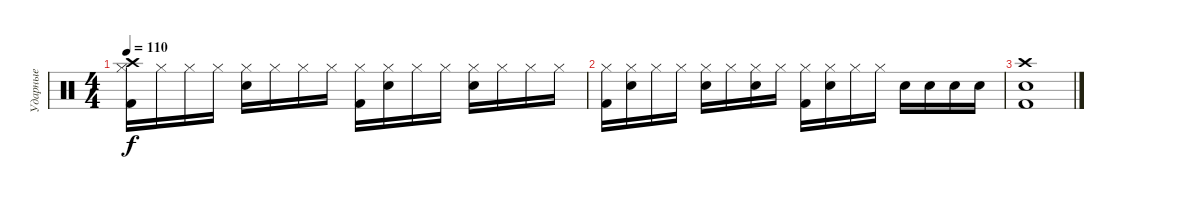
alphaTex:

\track ("Ударные" "Ударные") {instrument percussion}
\staff {score}
\articulation defaults
\ts (4 4)
\tempo 110
\clef neutral
\ks c
("Crash high (hit)" "Hi-Hat (closed)" "Kick (hit) 2").16{dy f} "Hi-Hat (closed)".16 "Hi-Hat (closed)".16 "Hi-Hat (closed)".16 ("Hi-Hat (closed)" "Snare (hit) 2").16 "Hi-Hat (closed)".16 "Hi-Hat (closed)".16 "Hi-Hat (closed)".16 ("Hi-Hat (closed)" "Kick (hit) 2").16 ("Hi-Hat (closed)" "Snare (hit) 2").16 "Hi-Hat (closed)".16 "Hi-Hat (closed)".16 ("Hi-Hat (closed)" "Snare (hit) 2").16 "Hi-Hat (closed)".16 "Hi-Hat (closed)".16 "Hi-Hat (closed)".16 |
("Hi-Hat (closed)" "Kick (hit) 2").16 ("Hi-Hat (closed)" "Snare (hit) 2").16 "Hi-Hat (closed)".16 "Hi-Hat (closed)".16 ("Hi-Hat (closed)" "Snare (hit) 2").16 "Hi-Hat (closed)".16 ("Hi-Hat (closed)" "Snare (hit) 2").16 "Hi-Hat (closed)".16 ("Hi-Hat (closed)" "Kick (hit) 2").16 ("Hi-Hat (closed)" "Snare (hit) 2").16 "Hi-Hat (closed)".16 "Hi-Hat (closed)".16 "Snare (hit) 2".16 "Snare (hit) 2".16 "Snare (hit) 2".16 "Snare (hit) 2".16 |
("Crash high (hit)" "Snare (hit) 2" "Kick (hit) 2").1
